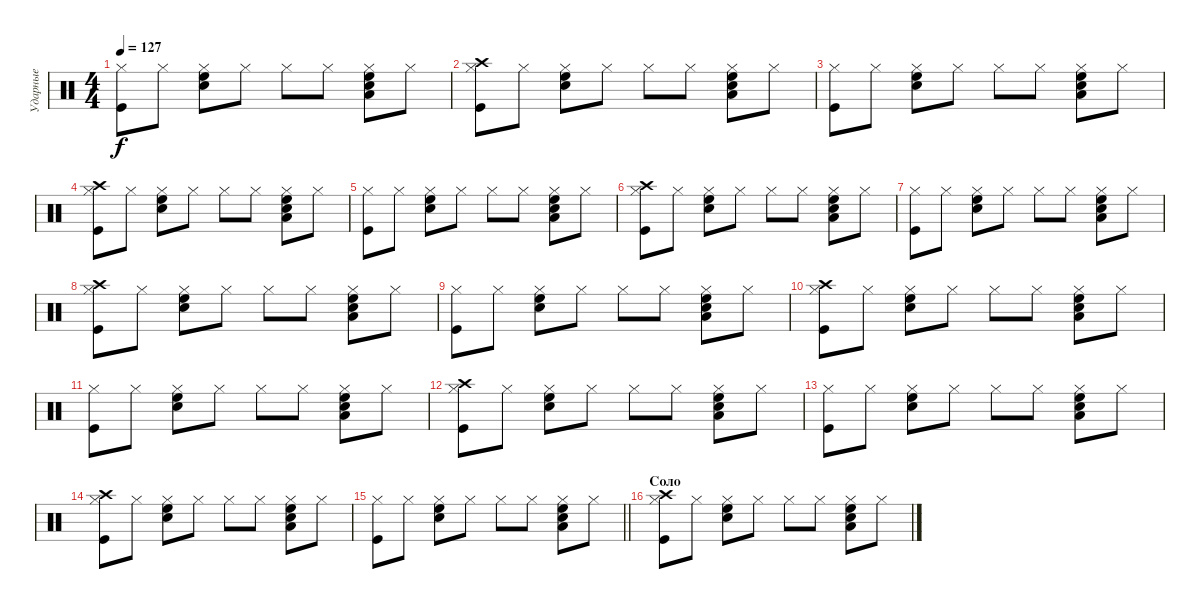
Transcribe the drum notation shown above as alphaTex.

\track ("Ударные" "Ударные") {instrument percussion}
\staff {score}
\articulation defaults
\ts (4 4)
\tempo 127
\clef neutral
\ks c
("Hi-Hat (closed)" "Kick (hit)").8{dy f} "Hi-Hat (closed)".8 ("Hi-Hat (closed)" "High Floor Tom (hit)" "Snare (hit) 2").8 "Hi-Hat (closed)".8 "Hi-Hat (closed)".8 "Hi-Hat (closed)".8 ("Hi-Hat (closed)" "High Floor Tom (hit)" "Snare (hit) 2" "Low Floor Tom (hit)").8 "Hi-Hat (closed)".8 |
("Hi-Hat (closed)" "Crash high (hit)" "Kick (hit)").8 "Hi-Hat (closed)".8 ("Hi-Hat (closed)" "High Floor Tom (hit)" "Snare (hit) 2").8 "Hi-Hat (closed)".8 "Hi-Hat (closed)".8 "Hi-Hat (closed)".8 ("Hi-Hat (closed)" "High Floor Tom (hit)" "Snare (hit) 2" "Low Floor Tom (hit)").8 "Hi-Hat (closed)".8 |
("Hi-Hat (closed)" "Kick (hit)").8 "Hi-Hat (closed)".8 ("Hi-Hat (closed)" "High Floor Tom (hit)" "Snare (hit) 2").8 "Hi-Hat (closed)".8 "Hi-Hat (closed)".8 "Hi-Hat (closed)".8 ("Hi-Hat (closed)" "High Floor Tom (hit)" "Snare (hit) 2" "Low Floor Tom (hit)").8 "Hi-Hat (closed)".8 |
("Hi-Hat (closed)" "Crash high (hit)" "Kick (hit)").8 "Hi-Hat (closed)".8 ("Hi-Hat (closed)" "High Floor Tom (hit)" "Snare (hit) 2").8 "Hi-Hat (closed)".8 "Hi-Hat (closed)".8 "Hi-Hat (closed)".8 ("Hi-Hat (closed)" "High Floor Tom (hit)" "Snare (hit) 2" "Low Floor Tom (hit)").8 "Hi-Hat (closed)".8 |
("Hi-Hat (closed)" "Kick (hit)").8 "Hi-Hat (closed)".8 ("Hi-Hat (closed)" "High Floor Tom (hit)" "Snare (hit) 2").8 "Hi-Hat (closed)".8 "Hi-Hat (closed)".8 "Hi-Hat (closed)".8 ("Hi-Hat (closed)" "High Floor Tom (hit)" "Snare (hit) 2" "Low Floor Tom (hit)").8 "Hi-Hat (closed)".8 |
("Hi-Hat (closed)" "Crash high (hit)" "Kick (hit)").8 "Hi-Hat (closed)".8 ("Hi-Hat (closed)" "High Floor Tom (hit)" "Snare (hit) 2").8 "Hi-Hat (closed)".8 "Hi-Hat (closed)".8 "Hi-Hat (closed)".8 ("Hi-Hat (closed)" "High Floor Tom (hit)" "Snare (hit) 2" "Low Floor Tom (hit)").8 "Hi-Hat (closed)".8 |
("Hi-Hat (closed)" "Kick (hit)").8 "Hi-Hat (closed)".8 ("Hi-Hat (closed)" "High Floor Tom (hit)" "Snare (hit) 2").8 "Hi-Hat (closed)".8 "Hi-Hat (closed)".8 "Hi-Hat (closed)".8 ("Hi-Hat (closed)" "High Floor Tom (hit)" "Snare (hit) 2" "Low Floor Tom (hit)").8 "Hi-Hat (closed)".8 |
("Hi-Hat (closed)" "Crash high (hit)" "Kick (hit)").8 "Hi-Hat (closed)".8 ("Hi-Hat (closed)" "High Floor Tom (hit)" "Snare (hit) 2").8 "Hi-Hat (closed)".8 "Hi-Hat (closed)".8 "Hi-Hat (closed)".8 ("Hi-Hat (closed)" "High Floor Tom (hit)" "Snare (hit) 2" "Low Floor Tom (hit)").8 "Hi-Hat (closed)".8 |
("Hi-Hat (closed)" "Kick (hit)").8 "Hi-Hat (closed)".8 ("Hi-Hat (closed)" "High Floor Tom (hit)" "Snare (hit) 2").8 "Hi-Hat (closed)".8 "Hi-Hat (closed)".8 "Hi-Hat (closed)".8 ("Hi-Hat (closed)" "High Floor Tom (hit)" "Snare (hit) 2" "Low Floor Tom (hit)").8 "Hi-Hat (closed)".8 |
("Hi-Hat (closed)" "Crash high (hit)" "Kick (hit)").8 "Hi-Hat (closed)".8 ("Hi-Hat (closed)" "High Floor Tom (hit)" "Snare (hit) 2").8 "Hi-Hat (closed)".8 "Hi-Hat (closed)".8 "Hi-Hat (closed)".8 ("Hi-Hat (closed)" "High Floor Tom (hit)" "Snare (hit) 2" "Low Floor Tom (hit)").8 "Hi-Hat (closed)".8 |
("Hi-Hat (closed)" "Kick (hit)").8 "Hi-Hat (closed)".8 ("Hi-Hat (closed)" "High Floor Tom (hit)" "Snare (hit) 2").8 "Hi-Hat (closed)".8 "Hi-Hat (closed)".8 "Hi-Hat (closed)".8 ("Hi-Hat (closed)" "High Floor Tom (hit)" "Snare (hit) 2" "Low Floor Tom (hit)").8 "Hi-Hat (closed)".8 |
("Hi-Hat (closed)" "Crash high (hit)" "Kick (hit)").8 "Hi-Hat (closed)".8 ("Hi-Hat (closed)" "High Floor Tom (hit)" "Snare (hit) 2").8 "Hi-Hat (closed)".8 "Hi-Hat (closed)".8 "Hi-Hat (closed)".8 ("Hi-Hat (closed)" "High Floor Tom (hit)" "Snare (hit) 2" "Low Floor Tom (hit)").8 "Hi-Hat (closed)".8 |
("Hi-Hat (closed)" "Kick (hit)").8 "Hi-Hat (closed)".8 ("Hi-Hat (closed)" "High Floor Tom (hit)" "Snare (hit) 2").8 "Hi-Hat (closed)".8 "Hi-Hat (closed)".8 "Hi-Hat (closed)".8 ("Hi-Hat (closed)" "High Floor Tom (hit)" "Snare (hit) 2" "Low Floor Tom (hit)").8 "Hi-Hat (closed)".8 |
("Hi-Hat (closed)" "Crash high (hit)" "Kick (hit)").8 "Hi-Hat (closed)".8 ("Hi-Hat (closed)" "High Floor Tom (hit)" "Snare (hit) 2").8 "Hi-Hat (closed)".8 "Hi-Hat (closed)".8 "Hi-Hat (closed)".8 ("Hi-Hat (closed)" "High Floor Tom (hit)" "Snare (hit) 2" "Low Floor Tom (hit)").8 "Hi-Hat (closed)".8 |
\barLineRight lightlight
("Hi-Hat (closed)" "Kick (hit)").8 "Hi-Hat (closed)".8 ("Hi-Hat (closed)" "High Floor Tom (hit)" "Snare (hit) 2").8 "Hi-Hat (closed)".8 "Hi-Hat (closed)".8 "Hi-Hat (closed)".8 ("Hi-Hat (closed)" "High Floor Tom (hit)" "Snare (hit) 2" "Low Floor Tom (hit)").8 "Hi-Hat (closed)".8 |
\section ("" "Соло")
("Hi-Hat (closed)" "Crash high (hit)" "Kick (hit)").8 "Hi-Hat (closed)".8 ("Hi-Hat (closed)" "High Floor Tom (hit)" "Snare (hit) 2").8 "Hi-Hat (closed)".8 "Hi-Hat (closed)".8 "Hi-Hat (closed)".8 ("Hi-Hat (closed)" "High Floor Tom (hit)" "Snare (hit) 2" "Low Floor Tom (hit)").8 "Hi-Hat (closed)".8
